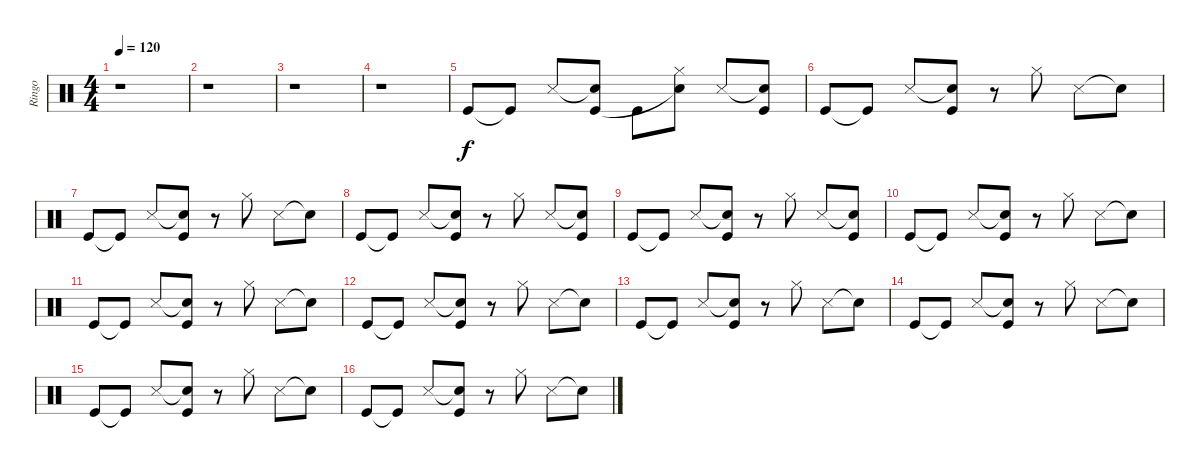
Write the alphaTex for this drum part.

\track ("Ringo" "Ringo") {instrument percussion}
\staff {score}
\articulation defaults
\ts (4 4)
\tempo 120
\clef neutral
\ks c
r.1{dy f} |
r.1 |
r.1 |
r.1 |
"Kick (hit)".8 "Kick (hit)"{t}.8 "Snare (side stick) 3".8 ("Snare (hit)"{t} "Kick (hit)").8 "Kick (hit)".8 ("Hi-Hat (closed)" "Snare (hit)"{t}).8 "Snare (side stick) 3".8 ("Snare (hit)"{t} "Kick (hit)").8 |
"Kick (hit)".8 "Kick (hit)"{t}.8 "Snare (side stick) 3".8 ("Snare (hit)"{t} "Kick (hit)").8 r.8 "Hi-Hat (closed)".8 "Snare (side stick) 3".8 "Snare (hit)"{t}.8 |
"Kick (hit)".8 "Kick (hit)"{t}.8 "Snare (side stick) 3".8 ("Snare (hit)"{t} "Kick (hit)").8 r.8 "Hi-Hat (closed)".8 "Snare (side stick) 3".8 "Snare (hit)"{t}.8 |
"Kick (hit)".8 "Kick (hit)"{t}.8 "Snare (side stick) 3".8 ("Snare (hit)"{t} "Kick (hit)").8 r.8 "Hi-Hat (closed)".8 "Snare (side stick) 3".8 ("Snare (hit)"{t} "Kick (hit)").8 |
"Kick (hit)".8 "Kick (hit)"{t}.8 "Snare (side stick) 3".8 ("Snare (hit)"{t} "Kick (hit)").8 r.8 "Hi-Hat (closed)".8 "Snare (side stick) 3".8 ("Snare (hit)"{t} "Kick (hit)").8 |
"Kick (hit)".8 "Kick (hit)"{t}.8 "Snare (side stick) 3".8 ("Snare (hit)"{t} "Kick (hit)").8 r.8 "Hi-Hat (closed)".8 "Snare (side stick) 3".8 "Snare (hit)"{t}.8 |
"Kick (hit)".8 "Kick (hit)"{t}.8 "Snare (side stick) 3".8 ("Snare (hit)"{t} "Kick (hit)").8 r.8 "Hi-Hat (closed)".8 "Snare (side stick) 3".8 "Snare (hit)"{t}.8 |
"Kick (hit)".8 "Kick (hit)"{t}.8 "Snare (side stick) 3".8 ("Snare (hit)"{t} "Kick (hit)").8 r.8 "Hi-Hat (closed)".8 "Snare (side stick) 3".8 "Snare (hit)"{t}.8 |
"Kick (hit)".8 "Kick (hit)"{t}.8 "Snare (side stick) 3".8 ("Snare (hit)"{t} "Kick (hit)").8 r.8 "Hi-Hat (closed)".8 "Snare (side stick) 3".8 "Snare (hit)"{t}.8 |
"Kick (hit)".8 "Kick (hit)"{t}.8 "Snare (side stick) 3".8 ("Snare (hit)"{t} "Kick (hit)").8 r.8 "Hi-Hat (closed)".8 "Snare (side stick) 3".8 "Snare (hit)"{t}.8 |
"Kick (hit)".8 "Kick (hit)"{t}.8 "Snare (side stick) 3".8 ("Snare (hit)"{t} "Kick (hit)").8 r.8 "Hi-Hat (closed)".8 "Snare (side stick) 3".8 "Snare (hit)"{t}.8 |
"Kick (hit)".8 "Kick (hit)"{t}.8 "Snare (side stick) 3".8 ("Snare (hit)"{t} "Kick (hit)").8 r.8 "Hi-Hat (closed)".8 "Snare (side stick) 3".8 "Snare (hit)"{t}.8
